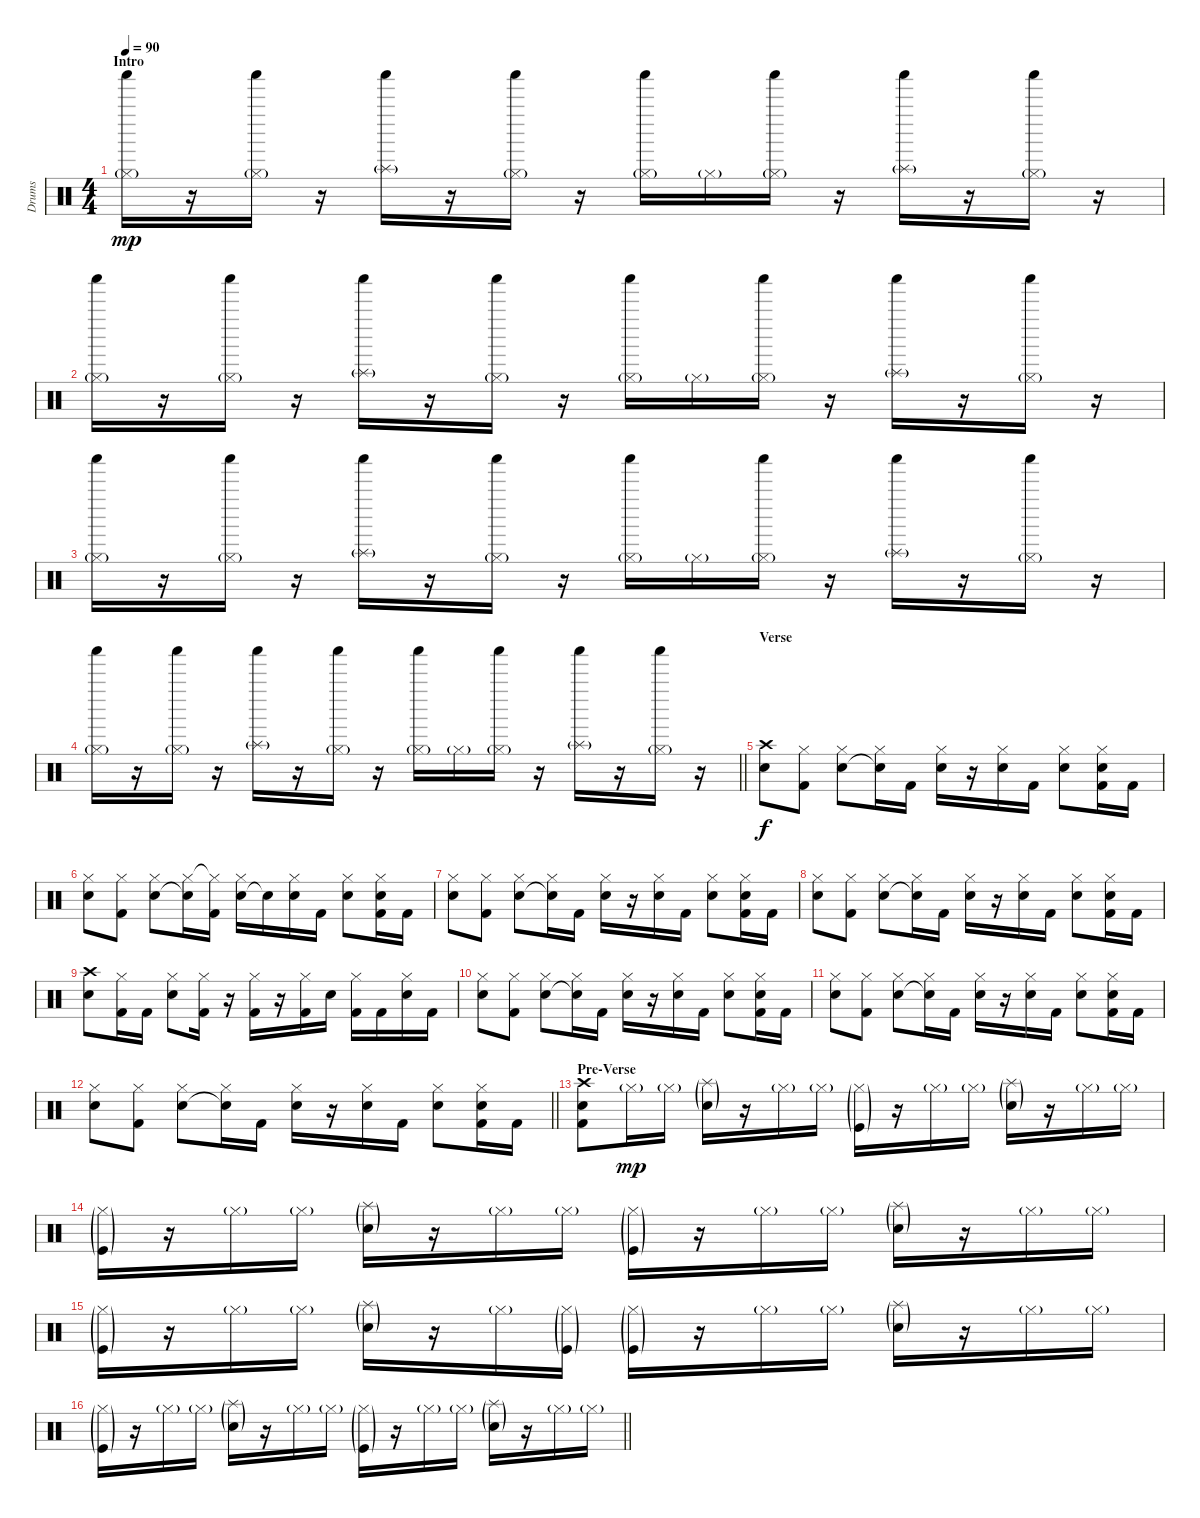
\track ("Drums" "Drums") {instrument percussion}
\staff {score}
\articulation defaults
\ts (4 4)
\section ("" "Intro")
\tempo 90
\clef neutral
\ks c
("Hi-Hat (closed)"{g} "Shaker (hit)").16{dy mp} r.16 ("Hi-Hat (closed)"{g} "Shaker (hit)").16 r.16 ("Splash (hit)"{g} "Shaker (hit)").16 r.16 ("Hi-Hat (closed)"{g} "Shaker (hit)").16 r.16 ("Hi-Hat (closed)"{g} "Shaker (hit)").16 "Hi-Hat (closed)"{g}.16 ("Hi-Hat (closed)"{g} "Shaker (hit)").16 r.16 ("Splash (hit)"{g} "Shaker (hit)").16 r.16 ("Hi-Hat (closed)"{g} "Shaker (hit)").16 r.16 |
("Hi-Hat (closed)"{g} "Shaker (hit)").16 r.16 ("Hi-Hat (closed)"{g} "Shaker (hit)").16 r.16 ("Splash (hit)"{g} "Shaker (hit)").16 r.16 ("Hi-Hat (closed)"{g} "Shaker (hit)").16 r.16 ("Hi-Hat (closed)"{g} "Shaker (hit)").16 "Hi-Hat (closed)"{g}.16 ("Hi-Hat (closed)"{g} "Shaker (hit)").16 r.16 ("Splash (hit)"{g} "Shaker (hit)").16 r.16 ("Hi-Hat (closed)"{g} "Shaker (hit)").16 r.16 |
("Hi-Hat (closed)"{g} "Shaker (hit)").16 r.16 ("Hi-Hat (closed)"{g} "Shaker (hit)").16 r.16 ("Splash (hit)"{g} "Shaker (hit)").16 r.16 ("Hi-Hat (closed)"{g} "Shaker (hit)").16 r.16 ("Hi-Hat (closed)"{g} "Shaker (hit)").16 "Hi-Hat (closed)"{g}.16 ("Hi-Hat (closed)"{g} "Shaker (hit)").16 r.16 ("Splash (hit)"{g} "Shaker (hit)").16 r.16 ("Hi-Hat (closed)"{g} "Shaker (hit)").16 r.16 |
\barLineRight lightlight
("Hi-Hat (closed)"{g} "Shaker (hit)").16 r.16 ("Hi-Hat (closed)"{g} "Shaker (hit)").16 r.16 ("Splash (hit)"{g} "Shaker (hit)").16 r.16 ("Hi-Hat (closed)"{g} "Shaker (hit)").16 r.16 ("Hi-Hat (closed)"{g} "Shaker (hit)").16 "Hi-Hat (closed)"{g}.16 ("Hi-Hat (closed)"{g} "Shaker (hit)").16 r.16 ("Splash (hit)"{g} "Shaker (hit)").16 r.16 ("Hi-Hat (closed)"{g} "Shaker (hit)").16 r.16 |
\section ("" "Verse")
("Electric Snare (hit)" "Crash high (hit)").8{dy f} ("Kick (hit) 2" "Hi-Hat (closed)").8 ("Electric Snare (hit)" "Hi-Hat (closed)").8 ("Snare (hit)"{t} "Hi-Hat (closed)").16 "Kick (hit) 2".16 ("Electric Snare (hit)" "Hi-Hat (closed)").16 r.16 ("Electric Snare (hit)" "Hi-Hat (closed)").16 "Kick (hit) 2".16 ("Electric Snare (hit)" "Hi-Hat (closed)").8 ("Kick (hit) 2" "Electric Snare (hit)" "Hi-Hat (closed)").16 "Kick (hit) 2".16 |
("Electric Snare (hit)" "Hi-Hat (closed)").8 ("Kick (hit) 2" "Hi-Hat (closed)").8 ("Electric Snare (hit)" "Hi-Hat (closed)").8 ("Snare (hit)"{t} "Hi-Hat (closed)").16 ("Kick (hit) 2" "Hi-Hat (closed)"{t}).16 ("Electric Snare (hit)" "Hi-Hat (closed)").16 "Snare (hit)"{t}.16 ("Electric Snare (hit)" "Hi-Hat (closed)").16 "Kick (hit) 2".16 ("Electric Snare (hit)" "Hi-Hat (closed)").8 ("Kick (hit) 2" "Electric Snare (hit)" "Hi-Hat (closed)").16 "Kick (hit) 2".16 |
("Electric Snare (hit)" "Hi-Hat (closed)").8 ("Kick (hit) 2" "Hi-Hat (closed)").8 ("Electric Snare (hit)" "Hi-Hat (closed)").8 ("Snare (hit)"{t} "Hi-Hat (closed)").16 "Kick (hit) 2".16 ("Electric Snare (hit)" "Hi-Hat (closed)").16 r.16 ("Electric Snare (hit)" "Hi-Hat (closed)").16 "Kick (hit) 2".16 ("Electric Snare (hit)" "Hi-Hat (closed)").8 ("Kick (hit) 2" "Electric Snare (hit)" "Hi-Hat (closed)").16 "Kick (hit) 2".16 |
("Electric Snare (hit)" "Hi-Hat (closed)").8 ("Kick (hit) 2" "Hi-Hat (closed)").8 ("Electric Snare (hit)" "Hi-Hat (closed)").8 ("Snare (hit)"{t} "Hi-Hat (closed)").16 "Kick (hit) 2".16 ("Electric Snare (hit)" "Hi-Hat (closed)").16 r.16 ("Electric Snare (hit)" "Hi-Hat (closed)").16 "Kick (hit) 2".16 ("Electric Snare (hit)" "Hi-Hat (closed)").8 ("Kick (hit) 2" "Electric Snare (hit)" "Hi-Hat (closed)").16 "Kick (hit) 2".16 |
("Electric Snare (hit)" "Crash high (hit)").8 ("Kick (hit) 2" "Hi-Hat (closed)").16 "Kick (hit) 2".16 ("Electric Snare (hit)" "Hi-Hat (closed)").8 ("Kick (hit) 2" "Hi-Hat (closed)").16 r.16 ("Kick (hit) 2" "Hi-Hat (closed)").16 r.16 ("Kick (hit) 2" "Hi-Hat (closed)").16 "Electric Snare (hit)".16 ("Kick (hit) 2" "Hi-Hat (closed)").16 "Kick (hit) 2".16 ("Electric Snare (hit)" "Hi-Hat (closed)").16 "Kick (hit) 2".16 |
("Electric Snare (hit)" "Hi-Hat (closed)").8 ("Kick (hit) 2" "Hi-Hat (closed)").8 ("Electric Snare (hit)" "Hi-Hat (closed)").8 ("Snare (hit)"{t} "Hi-Hat (closed)").16 "Kick (hit) 2".16 ("Electric Snare (hit)" "Hi-Hat (closed)").16 r.16 ("Electric Snare (hit)" "Hi-Hat (closed)").16 "Kick (hit) 2".16 ("Electric Snare (hit)" "Hi-Hat (closed)").8 ("Kick (hit) 2" "Electric Snare (hit)" "Hi-Hat (closed)").16 "Kick (hit) 2".16 |
("Electric Snare (hit)" "Hi-Hat (closed)").8 ("Kick (hit) 2" "Hi-Hat (closed)").8 ("Electric Snare (hit)" "Hi-Hat (closed)").8 ("Snare (hit)"{t} "Hi-Hat (closed)").16 "Kick (hit) 2".16 ("Electric Snare (hit)" "Hi-Hat (closed)").16 r.16 ("Electric Snare (hit)" "Hi-Hat (closed)").16 "Kick (hit) 2".16 ("Electric Snare (hit)" "Hi-Hat (closed)").8 ("Kick (hit) 2" "Electric Snare (hit)" "Hi-Hat (closed)").16 "Kick (hit) 2".16 |
\barLineRight lightlight
("Electric Snare (hit)" "Hi-Hat (closed)").8 ("Kick (hit) 2" "Hi-Hat (closed)").8 ("Electric Snare (hit)" "Hi-Hat (closed)").8 ("Snare (hit)"{t} "Hi-Hat (closed)").16 "Kick (hit) 2".16 ("Electric Snare (hit)" "Hi-Hat (closed)").16 r.16 ("Electric Snare (hit)" "Hi-Hat (closed)").16 "Kick (hit) 2".16 ("Electric Snare (hit)" "Hi-Hat (closed)").8 ("Kick (hit) 2" "Electric Snare (hit)" "Hi-Hat (closed)").16 "Kick (hit) 2".16 |
\section ("" "Pre-Verse")
("Kick (hit) 2" "Electric Snare (hit)" "Crash high (hit)").8 "Hi-Hat (closed)"{g}.16{dy mp} "Hi-Hat (closed)"{g}.16 ("Splash (hit)"{g} "Electric Snare (hit)"{g}).16 r.16 "Hi-Hat (closed)"{g}.16 "Hi-Hat (closed)"{g}.16 ("Hi-Hat (closed)"{g} "Kick (hit)"{g}).16 r.16 "Hi-Hat (closed)"{g}.16 "Hi-Hat (closed)"{g}.16 ("Splash (hit)"{g} "Electric Snare (hit)"{g}).16 r.16 "Hi-Hat (closed)"{g}.16 "Hi-Hat (closed)"{g}.16 |
("Hi-Hat (closed)"{g} "Kick (hit)"{g}).16 r.16 "Hi-Hat (closed)"{g}.16 "Hi-Hat (closed)"{g}.16 ("Splash (hit)"{g} "Electric Snare (hit)"{g}).16 r.16 "Hi-Hat (closed)"{g}.16 "Hi-Hat (closed)"{g}.16 ("Hi-Hat (closed)"{g} "Kick (hit)"{g}).16 r.16 "Hi-Hat (closed)"{g}.16 "Hi-Hat (closed)"{g}.16 ("Splash (hit)"{g} "Electric Snare (hit)"{g}).16 r.16 "Hi-Hat (closed)"{g}.16 "Hi-Hat (closed)"{g}.16 |
("Hi-Hat (closed)"{g} "Kick (hit)"{g}).16 r.16 "Hi-Hat (closed)"{g}.16 "Hi-Hat (closed)"{g}.16 ("Splash (hit)"{g} "Electric Snare (hit)"{g}).16 r.16 "Hi-Hat (closed)"{g}.16 ("Hi-Hat (closed)"{g} "Kick (hit)"{g}).16 ("Hi-Hat (closed)"{g} "Kick (hit)"{g}).16 r.16 "Hi-Hat (closed)"{g}.16 "Hi-Hat (closed)"{g}.16 ("Splash (hit)"{g} "Electric Snare (hit)"{g}).16 r.16 "Hi-Hat (closed)"{g}.16 "Hi-Hat (closed)"{g}.16 |
\barLineRight lightlight
("Hi-Hat (closed)"{g} "Kick (hit)"{g}).16 r.16 "Hi-Hat (closed)"{g}.16 "Hi-Hat (closed)"{g}.16 ("Splash (hit)"{g} "Electric Snare (hit)"{g}).16 r.16 "Hi-Hat (closed)"{g}.16 "Hi-Hat (closed)"{g}.16 ("Hi-Hat (closed)"{g} "Kick (hit)"{g}).16 r.16 "Hi-Hat (closed)"{g}.16 "Hi-Hat (closed)"{g}.16 ("Splash (hit)"{g} "Electric Snare (hit)"{g}).16 r.16 "Hi-Hat (closed)"{g}.16 "Hi-Hat (closed)"{g}.16
